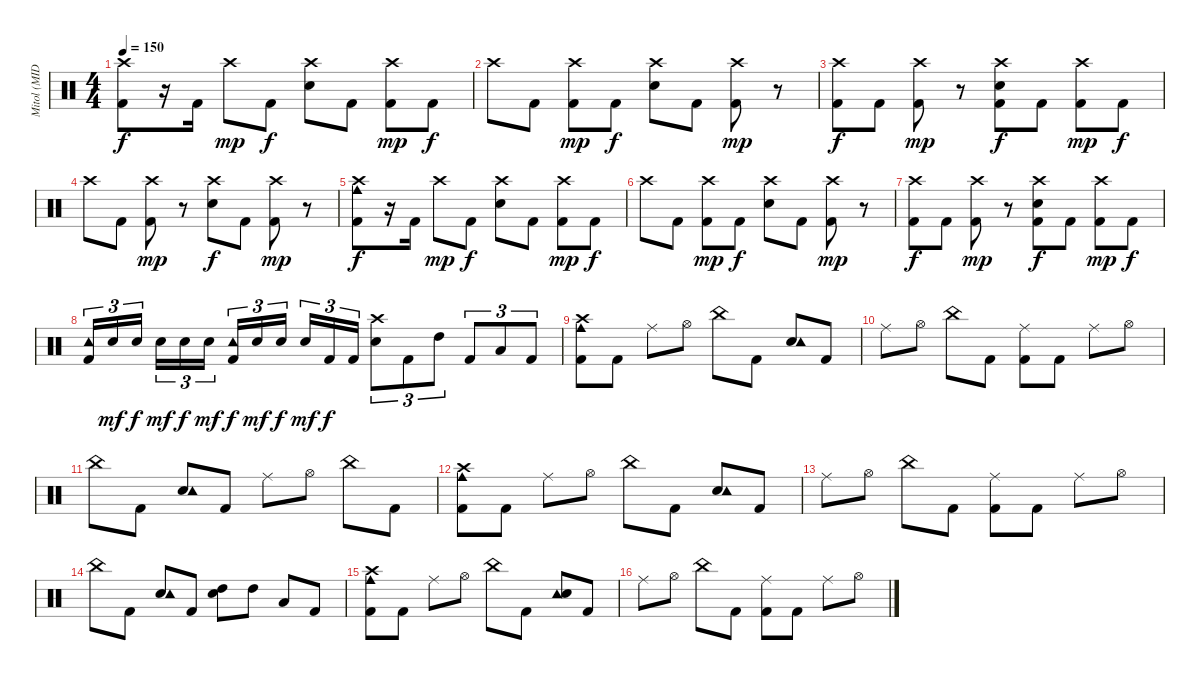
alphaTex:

\track ("Mitol (MIDI)" "Mitol (MID") {instrument percussion}
\staff {score}
\articulation defaults
\ts (4 4)
\tempo 150
\clef neutral
\ks c
("Crash high (hit)" "Kick (hit) 2").8{dy f} r.16 "Kick (hit) 2".16 "Crash high (hit)".8{dy mp} "Kick (hit) 2".8{dy f} ("Electric Snare (hit)" "Crash high (hit)").8 "Kick (hit) 2".8 ("Crash high (hit)" "Kick (hit) 2").8{dy mp} "Kick (hit) 2".8{dy f} |
"Crash high (hit)".8 "Kick (hit) 2".8 ("Crash high (hit)" "Kick (hit) 2").8{dy mp} "Kick (hit) 2".8{dy f} ("Crash high (hit)" "Electric Snare (hit)").8 "Kick (hit) 2".8 ("Crash high (hit)" "Kick (hit) 2").8{dy mp} r.8 |
("Crash high (hit)" "Kick (hit) 2").8{dy f} "Kick (hit) 2".8 ("Crash high (hit)" "Kick (hit) 2").8{dy mp} r.8 ("Kick (hit) 2" "Electric Snare (hit)" "Crash high (hit)").8{dy f} "Kick (hit) 2".8 ("Crash high (hit)" "Kick (hit) 2").8{dy mp} "Kick (hit) 2".8{dy f} |
"Crash high (hit)".8 "Kick (hit) 2".8 ("Kick (hit) 2" "Crash high (hit)").8{dy mp} r.8 ("Crash high (hit)" "Electric Snare (hit)").8{dy f} "Kick (hit) 2".8 ("Crash high (hit)" "Kick (hit) 2").8{dy mp} r.8 |
("Kick (hit) 2" "Crash high (hit)" "Cowbell medium (hit)").8{dy f} r.16 "Kick (hit) 2".16 "Crash high (hit)".8{dy mp} "Kick (hit) 2".8{dy f} ("Electric Snare (hit)" "Crash high (hit)").8 "Kick (hit) 2".8 ("Crash high (hit)" "Kick (hit) 2").8{dy mp} "Kick (hit) 2".8{dy f} |
"Crash high (hit)".8 "Kick (hit) 2".8 ("Kick (hit) 2" "Crash high (hit)").8{dy mp} "Kick (hit) 2".8{dy f} ("Crash high (hit)" "Electric Snare (hit)").8 "Kick (hit) 2".8 ("Kick (hit) 2" "Crash high (hit)").8{dy mp} r.8 |
("Kick (hit) 2" "Crash high (hit)").8{dy f} "Kick (hit) 2".8 ("Kick (hit) 2" "Crash high (hit)").8{dy mp} r.8 ("Kick (hit) 2" "Electric Snare (hit)" "Crash high (hit)").8{dy f} "Kick (hit) 2".8 ("Kick (hit) 2" "Crash high (hit)").8{dy mp} "Kick (hit) 2".8{dy f} |
("Kick (hit) 2" "Tambourine (hit)").16{tu (3 2)} "Electric Snare (hit)".16{tu (3 2) dy mf} "Electric Snare (hit)".16{tu (3 2) dy f beam splitsecondary} "Electric Snare (hit)".16{tu (3 2) dy mf} "Electric Snare (hit)".16{tu (3 2) dy f} "Electric Snare (hit)".16{tu (3 2) dy mf} ("Tambourine (hit)" "Kick (hit) 2").16{tu (3 2) dy f} "Electric Snare (hit)".16{tu (3 2) dy mf} "Electric Snare (hit)".16{tu (3 2) dy f beam splitsecondary} "Electric Snare (hit)".16{tu (3 2) dy mf} "Kick (hit) 2".16{tu (3 2) dy f} "Kick (hit) 2".16{tu (3 2)} ("Crash high (hit)" "Electric Snare (hit)").8{tu (3 2)} "Kick (hit) 2".8{tu (3 2)} "High Tom (hit)".8{tu (3 2)} "Kick (hit) 2".8{tu (3 2)} "Low Tom (hit)".8{tu (3 2)} "Kick (hit) 2".8{tu (3 2)} |
("Crash high (hit)" "Kick (hit) 2" "Cowbell medium (hit)").8 "Kick (hit) 2".8 "Ride (middle)".8 "Hi-Hat (open)".8 "China (hit)".8 "Kick (hit) 2".8 ("Electric Snare (hit)" "Tambourine (hit)").8 "Kick (hit) 2".8 |
"Ride (middle)".8 "Hi-Hat (open)".8 "China (hit)".8 "Kick (hit) 2".8 ("Ride (middle)" "Kick (hit) 2").8 "Kick (hit) 2".8 "Ride (middle)".8 "Hi-Hat (open)".8 |
"China (hit)".8 "Kick (hit) 2".8 ("Electric Snare (hit)" "Tambourine (hit)").8 "Kick (hit) 2".8 "Ride (middle)".8 "Hi-Hat (open)".8 "China (hit)".8 "Kick (hit) 2".8 |
("Cowbell medium (hit)" "Kick (hit) 2" "Crash high (hit)").8 "Kick (hit) 2".8 "Ride (middle)".8 "Hi-Hat (open)".8 "China (hit)".8 "Kick (hit) 2".8 ("Electric Snare (hit)" "Tambourine (hit)").8 "Kick (hit) 2".8 |
"Ride (middle)".8 "Hi-Hat (open)".8 "China (hit)".8 "Kick (hit) 2".8 ("Ride (middle)" "Kick (hit) 2").8 "Kick (hit) 2".8 "Ride (middle)".8 "Hi-Hat (open)".8 |
"China (hit)".8 "Kick (hit) 2".8 ("Electric Snare (hit)" "Tambourine (hit)").8 "Kick (hit) 2".8 ("High Tom (hit)" "Electric Snare (hit)").8 "High Tom (hit)".8 "Low Tom (hit)".8 "Kick (hit) 2".8 |
("Cowbell medium (hit)" "Kick (hit) 2" "Crash high (hit)").8 "Kick (hit) 2".8 "Ride (middle)".8 "Hi-Hat (open)".8 "China (hit)".8 "Kick (hit) 2".8 ("Tambourine (hit)" "Electric Snare (hit)").8 "Kick (hit) 2".8 |
"Ride (middle)".8 "Hi-Hat (open)".8 "China (hit)".8 "Kick (hit) 2".8 ("Ride (middle)" "Kick (hit) 2").8 "Kick (hit) 2".8 "Ride (middle)".8 "Hi-Hat (open)".8
